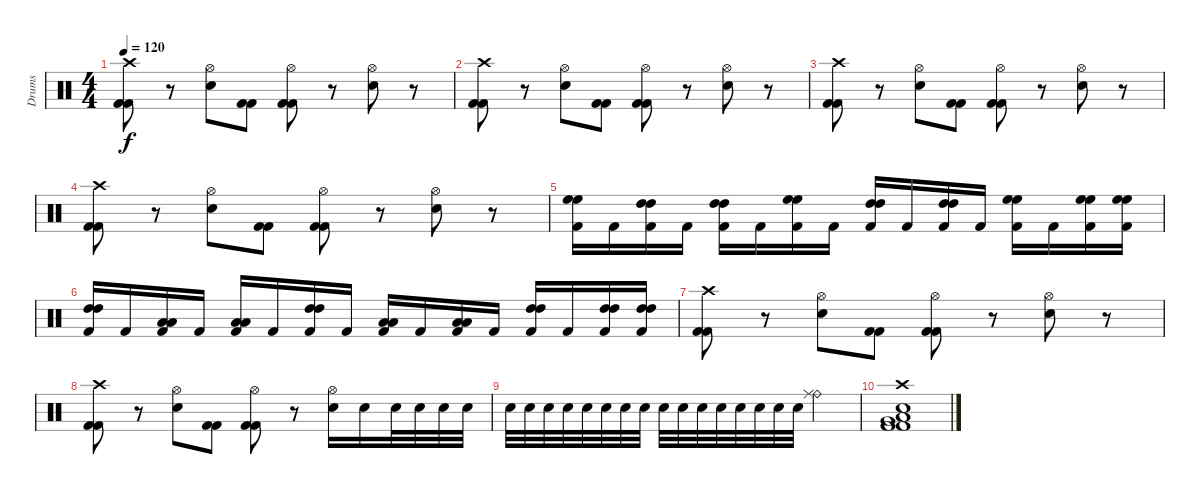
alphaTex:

\track ("Drums" "Drums") {instrument percussion}
\staff {score}
\articulation defaults
\ts (4 4)
\tempo 120
\clef neutral
\ks c
("Crash high (hit)" "Kick (hit) 2" "Kick (hit) 2").8{dy f} r.8 ("Hi-Hat (open)" "Snare (hit) 2").8 ("Kick (hit) 2" "Kick (hit) 2").8 ("Hi-Hat (open)" "Kick (hit) 2" "Kick (hit) 2").8 r.8 ("Hi-Hat (open)" "Snare (hit) 2").8 r.8 |
("Crash high (hit)" "Kick (hit) 2" "Kick (hit) 2").8 r.8 ("Hi-Hat (open)" "Snare (hit) 2").8 ("Kick (hit) 2" "Kick (hit) 2").8 ("Hi-Hat (open)" "Kick (hit) 2" "Kick (hit) 2").8 r.8 ("Hi-Hat (open)" "Snare (hit) 2").8 r.8 |
("Crash high (hit)" "Kick (hit) 2" "Kick (hit) 2").8 r.8 ("Hi-Hat (open)" "Snare (hit) 2").8 ("Kick (hit) 2" "Kick (hit) 2").8 ("Hi-Hat (open)" "Kick (hit) 2" "Kick (hit) 2").8 r.8 ("Hi-Hat (open)" "Snare (hit) 2").8 r.8 |
("Crash high (hit)" "Kick (hit) 2" "Kick (hit) 2").8 r.8 ("Hi-Hat (open)" "Snare (hit) 2").8 ("Kick (hit) 2" "Kick (hit) 2").8 ("Hi-Hat (open)" "Kick (hit) 2" "Kick (hit) 2").8 r.8 ("Hi-Hat (open)" "Snare (hit) 2").8 r.8 |
("High Floor Tom (hit)" "High Floor Tom (hit)" "Kick (hit) 2").16 "Kick (hit) 2".16 ("High Tom (hit)" "High Tom (hit)" "Kick (hit) 2").16 "Kick (hit) 2".16 ("High Tom (hit)" "High Tom (hit)" "Kick (hit) 2").16 "Kick (hit) 2".16 ("High Floor Tom (hit)" "High Floor Tom (hit)" "Kick (hit) 2").16 "Kick (hit) 2".16 ("High Tom (hit)" "High Tom (hit)" "Kick (hit) 2").16 "Kick (hit) 2".16 ("High Tom (hit)" "High Tom (hit)" "Kick (hit) 2").16 "Kick (hit) 2".16 ("High Floor Tom (hit)" "High Floor Tom (hit)" "Kick (hit) 2").16 "Kick (hit) 2".16 ("High Floor Tom (hit)" "High Floor Tom (hit)" "Kick (hit) 2").16 ("High Floor Tom (hit)" "High Floor Tom (hit)" "Kick (hit) 2").16 |
("High Tom (hit)" "High Tom (hit)" "Kick (hit) 2").16 "Kick (hit) 2".16 ("Low Tom (hit)" "Low Tom (hit)" "Kick (hit) 2").16 "Kick (hit) 2".16 ("Low Tom (hit)" "Low Tom (hit)" "Kick (hit) 2").16 "Kick (hit) 2".16 ("High Tom (hit)" "High Tom (hit)" "Kick (hit) 2").16 "Kick (hit) 2".16 ("Low Tom (hit)" "Low Tom (hit)" "Kick (hit) 2").16 "Kick (hit) 2".16 ("Low Tom (hit)" "Low Tom (hit)" "Kick (hit) 2").16 "Kick (hit) 2".16 ("High Tom (hit)" "High Tom (hit)" "Kick (hit) 2").16 "Kick (hit) 2".16 ("High Tom (hit)" "High Tom (hit)" "Kick (hit) 2").16 ("High Tom (hit)" "High Tom (hit)" "Kick (hit) 2").16 |
("Crash high (hit)" "Kick (hit) 2" "Kick (hit) 2").8 r.8 ("Hi-Hat (open)" "Snare (hit) 2").8 ("Kick (hit) 2" "Kick (hit) 2").8 ("Hi-Hat (open)" "Kick (hit) 2" "Kick (hit) 2").8 r.8 ("Hi-Hat (open)" "Snare (hit) 2").8 r.8 |
("Crash high (hit)" "Kick (hit) 2" "Kick (hit) 2").8 r.8 ("Hi-Hat (open)" "Snare (hit) 2").8 ("Kick (hit) 2" "Kick (hit) 2").8 ("Hi-Hat (open)" "Kick (hit) 2" "Kick (hit) 2").8 r.8 ("Hi-Hat (open)" "Snare (hit) 2").16 "Snare (hit) 2".16 "Snare (hit) 2".32 "Snare (hit) 2".32 "Snare (hit) 2".32 "Snare (hit) 2".32 |
"Snare (hit) 2".32 "Snare (hit) 2".32 "Snare (hit) 2".32 "Snare (hit) 2".32 "Snare (hit) 2".32 "Snare (hit) 2".32 "Snare (hit) 2".32 "Snare (hit) 2".32 "Snare (hit) 2".32 "Snare (hit) 2".32 "Snare (hit) 2".32 "Snare (hit) 2".32 "Snare (hit) 2".32 "Snare (hit) 2".32 "Snare (hit) 2".32 "Snare (hit) 2".32 ("Ride (bell)" "Ride (middle)").2 |
("Very Low Tom (hit)" "Crash high (hit)" "Snare (hit) 2" "Kick (hit) 2" "Kick (hit) 2" "Low Floor Tom (hit)").1
